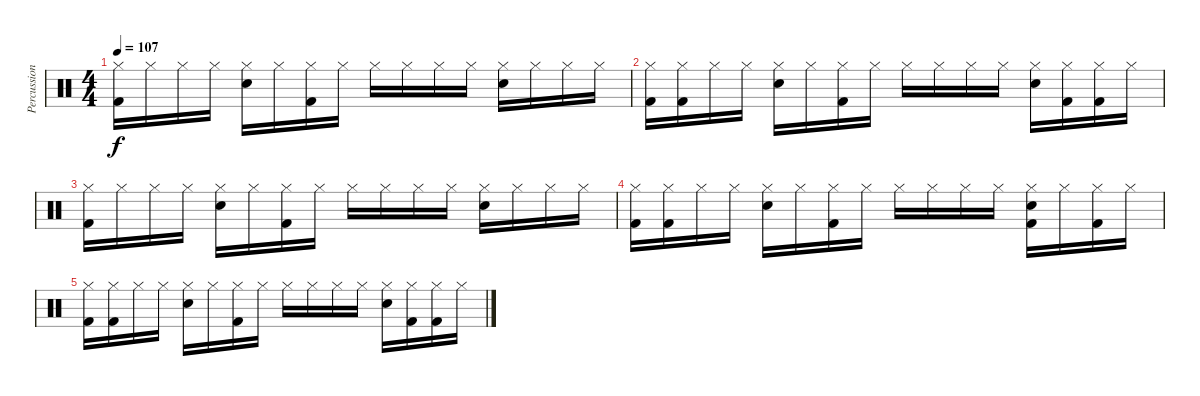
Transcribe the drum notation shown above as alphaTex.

\track ("Percussion" "Percussion") {instrument percussion}
\staff {score}
\articulation defaults
\ts (4 4)
\tempo 107
\clef neutral
\ks c
("Hi-Hat (closed)" "Kick (hit) 2").16{dy f} "Hi-Hat (closed)".16 "Hi-Hat (closed)".16 "Hi-Hat (closed)".16 ("Hi-Hat (closed)" "Snare (hit) 2").16 "Hi-Hat (closed)".16 ("Hi-Hat (closed)" "Kick (hit) 2").16 "Hi-Hat (closed)".16 "Hi-Hat (closed)".16 "Hi-Hat (closed)".16 "Hi-Hat (closed)".16 "Hi-Hat (closed)".16 ("Hi-Hat (closed)" "Snare (hit) 2").16 "Hi-Hat (closed)".16 "Hi-Hat (closed)".16 "Hi-Hat (closed)".16 |
("Hi-Hat (closed)" "Kick (hit) 2").16 ("Hi-Hat (closed)" "Kick (hit) 2").16 "Hi-Hat (closed)".16 "Hi-Hat (closed)".16 ("Hi-Hat (closed)" "Snare (hit) 2").16 "Hi-Hat (closed)".16 ("Hi-Hat (closed)" "Kick (hit) 2").16 "Hi-Hat (closed)".16 "Hi-Hat (closed)".16 "Hi-Hat (closed)".16 "Hi-Hat (closed)".16 "Hi-Hat (closed)".16 ("Hi-Hat (closed)" "Snare (hit) 2").16 ("Hi-Hat (closed)" "Kick (hit) 2").16 ("Hi-Hat (closed)" "Kick (hit) 2").16 "Hi-Hat (closed)".16 |
("Hi-Hat (closed)" "Kick (hit) 2").16 "Hi-Hat (closed)".16 "Hi-Hat (closed)".16 "Hi-Hat (closed)".16 ("Hi-Hat (closed)" "Snare (hit) 2").16 "Hi-Hat (closed)".16 ("Hi-Hat (closed)" "Kick (hit) 2").16 "Hi-Hat (closed)".16 "Hi-Hat (closed)".16 "Hi-Hat (closed)".16 "Hi-Hat (closed)".16 "Hi-Hat (closed)".16 ("Hi-Hat (closed)" "Snare (hit) 2").16 "Hi-Hat (closed)".16 "Hi-Hat (closed)".16 "Hi-Hat (closed)".16 |
("Hi-Hat (closed)" "Kick (hit) 2").16 ("Hi-Hat (closed)" "Kick (hit) 2").16 "Hi-Hat (closed)".16 "Hi-Hat (closed)".16 ("Hi-Hat (closed)" "Snare (hit) 2").16 "Hi-Hat (closed)".16 ("Hi-Hat (closed)" "Kick (hit) 2").16 "Hi-Hat (closed)".16 "Hi-Hat (closed)".16 "Hi-Hat (closed)".16 "Hi-Hat (closed)".16 "Hi-Hat (closed)".16 ("Hi-Hat (closed)" "Snare (hit) 2" "Kick (hit) 2").16 "Hi-Hat (closed)".16 ("Hi-Hat (closed)" "Kick (hit) 2").16 "Hi-Hat (closed)".16 |
("Hi-Hat (closed)" "Kick (hit) 2").16 ("Hi-Hat (closed)" "Kick (hit) 2").16 "Hi-Hat (closed)".16 "Hi-Hat (closed)".16 ("Hi-Hat (closed)" "Snare (hit) 2").16 "Hi-Hat (closed)".16 ("Hi-Hat (closed)" "Kick (hit) 2").16 "Hi-Hat (closed)".16 "Hi-Hat (closed)".16 "Hi-Hat (closed)".16 "Hi-Hat (closed)".16 "Hi-Hat (closed)".16 ("Hi-Hat (closed)" "Snare (hit) 2").16 ("Hi-Hat (closed)" "Kick (hit) 2").16 ("Hi-Hat (closed)" "Kick (hit) 2").16 "Hi-Hat (closed)".16
